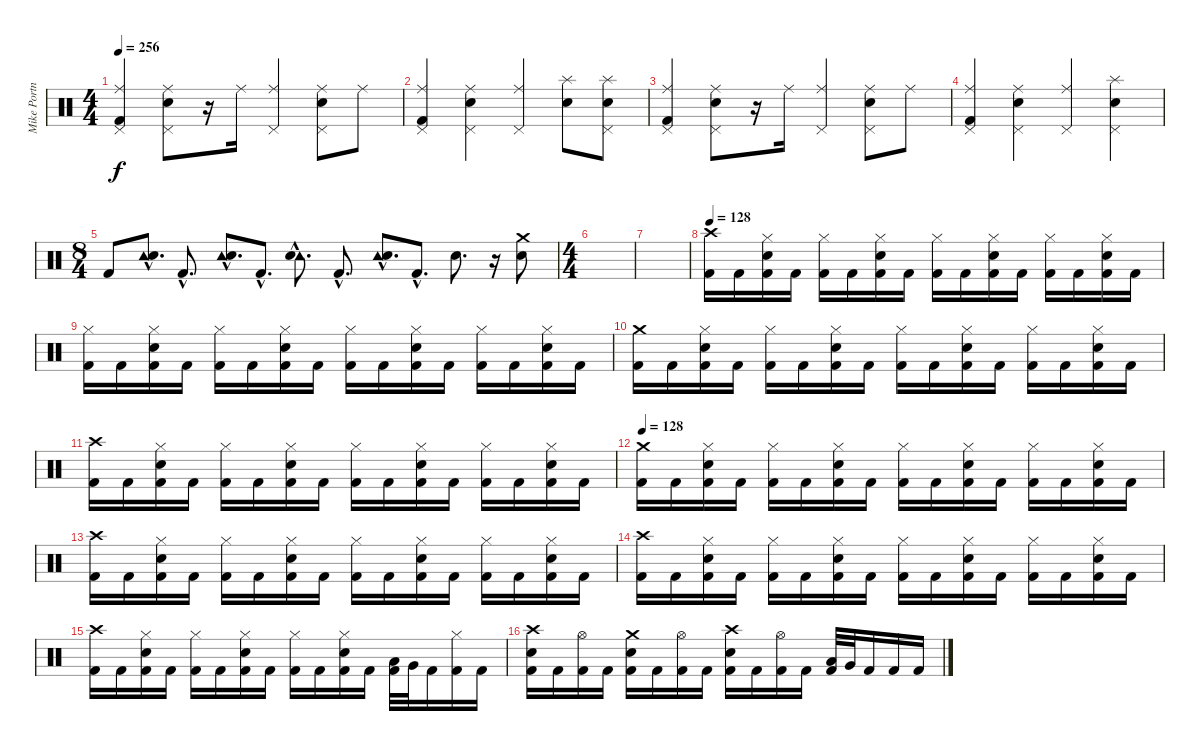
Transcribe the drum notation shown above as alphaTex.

\track ("Mike Portnoy" "Mike Portn") {instrument percussion}
\staff {score}
\articulation defaults
\ts (4 4)
\tempo 256
\clef neutral
\ks c
("Ride (middle)" "Kick (hit) 2" "Pedal Hi-Hat (hit)").4{dy f} ("Ride (middle)" "Snare (hit) 2" "Pedal Hi-Hat (hit)").8 r.16 "Ride (middle)".16 ("Ride (middle)" "Pedal Hi-Hat (hit)").4 ("Ride (middle)" "Snare (hit) 2" "Pedal Hi-Hat (hit)").8 "Ride (middle)".8 |
("Ride (middle)" "Kick (hit) 2" "Pedal Hi-Hat (hit)").4 ("Ride (middle)" "Snare (hit) 2" "Pedal Hi-Hat (hit)").4 ("Ride (middle)" "Pedal Hi-Hat (hit)").4 ("Splash (hit)" "Snare (hit) 2").8 ("Splash (hit)" "Snare (hit) 2" "Pedal Hi-Hat (hit)").8 |
("Ride (middle)" "Kick (hit) 2" "Pedal Hi-Hat (hit)").4 ("Ride (middle)" "Snare (hit) 2" "Pedal Hi-Hat (hit)").8 r.16 "Ride (middle)".16 ("Ride (middle)" "Pedal Hi-Hat (hit)").4 ("Ride (middle)" "Snare (hit) 2" "Pedal Hi-Hat (hit)").8 "Ride (middle)".8 |
("Ride (middle)" "Kick (hit) 2" "Pedal Hi-Hat (hit)").4 ("Ride (middle)" "Snare (hit) 2" "Pedal Hi-Hat (hit)").4 ("Ride (middle)" "Pedal Hi-Hat (hit)").4 ("Splash (hit)" "Snare (hit) 2" "Pedal Hi-Hat (hit)").4 |
\ts (8 4)
"Kick (hit) 2".8 ("Tambourine (hit)"{hac} "Snare (hit) 2"{hac}).8{d} "Kick (hit) 2"{hac}.8{d} ("Tambourine (hit)"{hac} "Snare (hit) 2"{hac}).8{d} "Kick (hit) 2"{hac}.8{d} ("Tambourine (hit)"{hac} "Snare (hit) 2"{hac}).8{d} "Kick (hit) 2"{hac}.8{d} ("Tambourine (hit)"{hac} "Snare (hit) 2"{hac}).8{d} "Kick (hit) 2"{hac}.8{d} "Snare (hit) 2".8{d} r.16 ("Crash medium (hit)" "Snare (hit) 2").8 |
\ts (4 4)
|
|
\tempo 128
("Crash high (hit)" "Kick (hit) 2").16 "Kick (hit) 2".16 ("Hi-Hat (closed)" "Snare (hit) 2" "Kick (hit) 2").16 "Kick (hit) 2".16 ("Hi-Hat (closed)" "Kick (hit) 2").16 "Kick (hit) 2".16 ("Hi-Hat (closed)" "Snare (hit) 2" "Kick (hit) 2").16 "Kick (hit) 2".16 ("Hi-Hat (closed)" "Kick (hit) 2").16 "Kick (hit) 2".16 ("Hi-Hat (closed)" "Snare (hit) 2" "Kick (hit) 2").16 "Kick (hit) 2".16 ("Hi-Hat (closed)" "Kick (hit) 2").16 "Kick (hit) 2".16 ("Hi-Hat (closed)" "Snare (hit) 2" "Kick (hit) 2").16 "Kick (hit) 2".16 |
("Hi-Hat (closed)" "Kick (hit) 2").16 "Kick (hit) 2".16 ("Hi-Hat (closed)" "Snare (hit) 2" "Kick (hit) 2").16 "Kick (hit) 2".16 ("Hi-Hat (closed)" "Kick (hit) 2").16 "Kick (hit) 2".16 ("Hi-Hat (closed)" "Snare (hit) 2" "Kick (hit) 2").16 "Kick (hit) 2".16 ("Hi-Hat (closed)" "Kick (hit) 2").16 "Kick (hit) 2".16 ("Hi-Hat (closed)" "Snare (hit) 2" "Kick (hit) 2").16 "Kick (hit) 2".16 ("Hi-Hat (closed)" "Kick (hit) 2").16 "Kick (hit) 2".16 ("Hi-Hat (closed)" "Snare (hit) 2" "Kick (hit) 2").16 "Kick (hit) 2".16 |
("Crash medium (hit)" "Kick (hit) 2").16 "Kick (hit) 2".16 ("Hi-Hat (closed)" "Snare (hit) 2" "Kick (hit) 2").16 "Kick (hit) 2".16 ("Hi-Hat (closed)" "Kick (hit) 2").16 "Kick (hit) 2".16 ("Hi-Hat (closed)" "Snare (hit) 2" "Kick (hit) 2").16 "Kick (hit) 2".16 ("Hi-Hat (closed)" "Kick (hit) 2").16 "Kick (hit) 2".16 ("Hi-Hat (closed)" "Snare (hit) 2" "Kick (hit) 2").16 "Kick (hit) 2".16 ("Hi-Hat (closed)" "Kick (hit) 2").16 "Kick (hit) 2".16 ("Hi-Hat (closed)" "Snare (hit) 2" "Kick (hit) 2").16 "Kick (hit) 2".16 |
("Crash high (hit)" "Kick (hit) 2").16 "Kick (hit) 2".16 ("Hi-Hat (closed)" "Snare (hit) 2" "Kick (hit) 2").16 "Kick (hit) 2".16 ("Hi-Hat (closed)" "Kick (hit) 2").16 "Kick (hit) 2".16 ("Hi-Hat (closed)" "Snare (hit) 2" "Kick (hit) 2").16 "Kick (hit) 2".16 ("Hi-Hat (closed)" "Kick (hit) 2").16 "Kick (hit) 2".16 ("Hi-Hat (closed)" "Snare (hit) 2" "Kick (hit) 2").16 "Kick (hit) 2".16 ("Hi-Hat (closed)" "Kick (hit) 2").16 "Kick (hit) 2".16 ("Hi-Hat (closed)" "Snare (hit) 2" "Kick (hit) 2").16 "Kick (hit) 2".16 |
\tempo 128
("Crash medium (hit)" "Kick (hit) 2").16 "Kick (hit) 2".16 ("Hi-Hat (closed)" "Snare (hit) 2" "Kick (hit) 2").16 "Kick (hit) 2".16 ("Hi-Hat (closed)" "Kick (hit) 2").16 "Kick (hit) 2".16 ("Hi-Hat (closed)" "Snare (hit) 2" "Kick (hit) 2").16 "Kick (hit) 2".16 ("Hi-Hat (closed)" "Kick (hit) 2").16 "Kick (hit) 2".16 ("Hi-Hat (closed)" "Snare (hit) 2" "Kick (hit) 2").16 "Kick (hit) 2".16 ("Hi-Hat (closed)" "Kick (hit) 2").16 "Kick (hit) 2".16 ("Hi-Hat (closed)" "Snare (hit) 2" "Kick (hit) 2").16 "Kick (hit) 2".16 |
("Crash high (hit)" "Kick (hit) 2").16 "Kick (hit) 2".16 ("Hi-Hat (closed)" "Snare (hit) 2" "Kick (hit) 2").16 "Kick (hit) 2".16 ("Hi-Hat (closed)" "Kick (hit) 2").16 "Kick (hit) 2".16 ("Hi-Hat (closed)" "Snare (hit) 2" "Kick (hit) 2").16 "Kick (hit) 2".16 ("Hi-Hat (closed)" "Kick (hit) 2").16 "Kick (hit) 2".16 ("Hi-Hat (closed)" "Snare (hit) 2" "Kick (hit) 2").16 "Kick (hit) 2".16 ("Hi-Hat (closed)" "Kick (hit) 2").16 "Kick (hit) 2".16 ("Hi-Hat (closed)" "Snare (hit) 2" "Kick (hit) 2").16 "Kick (hit) 2".16 |
("Crash high (hit)" "Kick (hit) 2").16 "Kick (hit) 2".16 ("Hi-Hat (closed)" "Snare (hit) 2" "Kick (hit) 2").16 "Kick (hit) 2".16 ("Hi-Hat (closed)" "Kick (hit) 2").16 "Kick (hit) 2".16 ("Hi-Hat (closed)" "Snare (hit) 2" "Kick (hit) 2").16 "Kick (hit) 2".16 ("Hi-Hat (closed)" "Kick (hit) 2").16 "Kick (hit) 2".16 ("Hi-Hat (closed)" "Snare (hit) 2" "Kick (hit) 2").16 "Kick (hit) 2".16 ("Hi-Hat (closed)" "Kick (hit) 2").16 "Kick (hit) 2".16 ("Hi-Hat (closed)" "Snare (hit) 2" "Kick (hit) 2").16 "Kick (hit) 2".16 |
("Crash high (hit)" "Kick (hit) 2").16 "Kick (hit) 2".16 ("Hi-Hat (closed)" "Snare (hit) 2" "Kick (hit) 2").16 "Kick (hit) 2".16 ("Hi-Hat (closed)" "Kick (hit) 2").16 "Kick (hit) 2".16 ("Hi-Hat (closed)" "Snare (hit) 2" "Kick (hit) 2").16 "Kick (hit) 2".16 ("Hi-Hat (closed)" "Kick (hit) 2").16 "Kick (hit) 2".16 ("Hi-Hat (closed)" "Snare (hit) 2" "Kick (hit) 2").16 "Kick (hit) 2".16 ("Low Floor Tom (hit)" "Kick (hit) 2").32 "Very Low Tom (hit)".32 "Kick (hit) 2".16 ("Hi-Hat (closed)" "Kick (hit) 2").16 "Kick (hit) 2".16 |
("Crash high (hit)" "Snare (hit) 2" "Kick (hit) 2").16 "Kick (hit) 2".16 ("Hi-Hat (open)" "Kick (hit) 2").16 "Kick (hit) 2".16 ("Crash medium (hit)" "Snare (hit) 2" "Kick (hit) 2").16 "Kick (hit) 2".16 ("Hi-Hat (open)" "Kick (hit) 2").16 "Kick (hit) 2".16 ("Crash high (hit)" "Snare (hit) 2" "Kick (hit) 2").16 "Kick (hit) 2".16 ("Hi-Hat (open)" "Kick (hit) 2").16 "Kick (hit) 2".16 ("Low Floor Tom (hit)" "Kick (hit) 2").32 "Very Low Tom (hit)".32 "Kick (hit) 2".16 "Kick (hit) 2".16 "Kick (hit) 2".16
